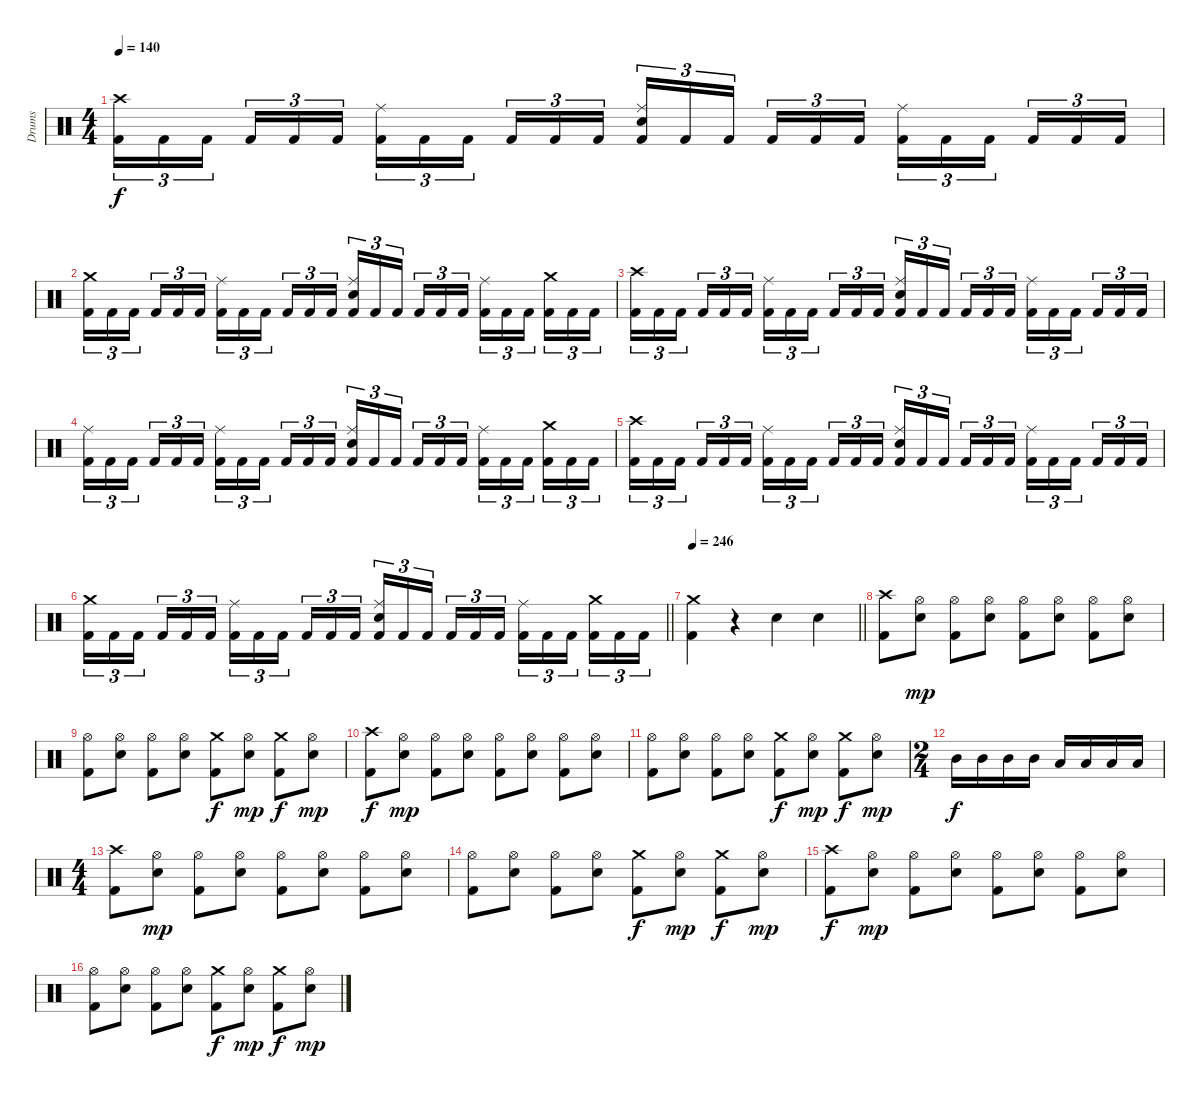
\track ("Drums" "Drums") {instrument percussion}
\staff {score}
\articulation defaults
\ts (4 4)
\tempo 140
\clef neutral
\ks c
("Crash high (hit)" "Kick (hit) 2").16{tu (3 2) dy f} "Kick (hit) 2".16{tu (3 2)} "Kick (hit) 2".16{tu (3 2) beam splitsecondary} "Kick (hit) 2".16{tu (3 2)} "Kick (hit) 2".16{tu (3 2)} "Kick (hit) 2".16{tu (3 2)} ("Ride (middle)" "Kick (hit) 2").16{tu (3 2)} "Kick (hit) 2".16{tu (3 2)} "Kick (hit) 2".16{tu (3 2) beam splitsecondary} "Kick (hit) 2".16{tu (3 2)} "Kick (hit) 2".16{tu (3 2)} "Kick (hit) 2".16{tu (3 2)} ("Ride (middle)" "Snare (hit) 2" "Kick (hit) 2").16{tu (3 2)} "Kick (hit) 2".16{tu (3 2)} "Kick (hit) 2".16{tu (3 2) beam splitsecondary} "Kick (hit) 2".16{tu (3 2)} "Kick (hit) 2".16{tu (3 2)} "Kick (hit) 2".16{tu (3 2)} ("Ride (middle)" "Kick (hit) 2").16{tu (3 2)} "Kick (hit) 2".16{tu (3 2)} "Kick (hit) 2".16{tu (3 2) beam splitsecondary} "Kick (hit) 2".16{tu (3 2)} "Kick (hit) 2".16{tu (3 2)} "Kick (hit) 2".16{tu (3 2)} |
("Crash medium (hit)" "Kick (hit) 2").16{tu (3 2)} "Kick (hit) 2".16{tu (3 2)} "Kick (hit) 2".16{tu (3 2) beam splitsecondary} "Kick (hit) 2".16{tu (3 2)} "Kick (hit) 2".16{tu (3 2)} "Kick (hit) 2".16{tu (3 2)} ("Ride (middle)" "Kick (hit) 2").16{tu (3 2)} "Kick (hit) 2".16{tu (3 2)} "Kick (hit) 2".16{tu (3 2) beam splitsecondary} "Kick (hit) 2".16{tu (3 2)} "Kick (hit) 2".16{tu (3 2)} "Kick (hit) 2".16{tu (3 2)} ("Ride (middle)" "Snare (hit) 2" "Kick (hit) 2").16{tu (3 2)} "Kick (hit) 2".16{tu (3 2)} "Kick (hit) 2".16{tu (3 2) beam splitsecondary} "Kick (hit) 2".16{tu (3 2)} "Kick (hit) 2".16{tu (3 2)} "Kick (hit) 2".16{tu (3 2)} ("Ride (middle)" "Kick (hit) 2").16{tu (3 2)} "Kick (hit) 2".16{tu (3 2)} "Kick (hit) 2".16{tu (3 2) beam splitsecondary} ("Crash medium (hit)" "Kick (hit) 2").16{tu (3 2)} "Kick (hit) 2".16{tu (3 2)} "Kick (hit) 2".16{tu (3 2)} |
("Crash high (hit)" "Kick (hit) 2").16{tu (3 2)} "Kick (hit) 2".16{tu (3 2)} "Kick (hit) 2".16{tu (3 2) beam splitsecondary} "Kick (hit) 2".16{tu (3 2)} "Kick (hit) 2".16{tu (3 2)} "Kick (hit) 2".16{tu (3 2)} ("Ride (middle)" "Kick (hit) 2").16{tu (3 2)} "Kick (hit) 2".16{tu (3 2)} "Kick (hit) 2".16{tu (3 2) beam splitsecondary} "Kick (hit) 2".16{tu (3 2)} "Kick (hit) 2".16{tu (3 2)} "Kick (hit) 2".16{tu (3 2)} ("Ride (middle)" "Snare (hit) 2" "Kick (hit) 2").16{tu (3 2)} "Kick (hit) 2".16{tu (3 2)} "Kick (hit) 2".16{tu (3 2) beam splitsecondary} "Kick (hit) 2".16{tu (3 2)} "Kick (hit) 2".16{tu (3 2)} "Kick (hit) 2".16{tu (3 2)} ("Ride (middle)" "Kick (hit) 2").16{tu (3 2)} "Kick (hit) 2".16{tu (3 2)} "Kick (hit) 2".16{tu (3 2) beam splitsecondary} "Kick (hit) 2".16{tu (3 2)} "Kick (hit) 2".16{tu (3 2)} "Kick (hit) 2".16{tu (3 2)} |
("Ride (middle)" "Kick (hit) 2").16{tu (3 2)} "Kick (hit) 2".16{tu (3 2)} "Kick (hit) 2".16{tu (3 2) beam splitsecondary} "Kick (hit) 2".16{tu (3 2)} "Kick (hit) 2".16{tu (3 2)} "Kick (hit) 2".16{tu (3 2)} ("Ride (middle)" "Kick (hit) 2").16{tu (3 2)} "Kick (hit) 2".16{tu (3 2)} "Kick (hit) 2".16{tu (3 2) beam splitsecondary} "Kick (hit) 2".16{tu (3 2)} "Kick (hit) 2".16{tu (3 2)} "Kick (hit) 2".16{tu (3 2)} ("Ride (middle)" "Snare (hit) 2" "Kick (hit) 2").16{tu (3 2)} "Kick (hit) 2".16{tu (3 2)} "Kick (hit) 2".16{tu (3 2) beam splitsecondary} "Kick (hit) 2".16{tu (3 2)} "Kick (hit) 2".16{tu (3 2)} "Kick (hit) 2".16{tu (3 2)} ("Ride (middle)" "Kick (hit) 2").16{tu (3 2)} "Kick (hit) 2".16{tu (3 2)} "Kick (hit) 2".16{tu (3 2) beam splitsecondary} ("Crash medium (hit)" "Kick (hit) 2").16{tu (3 2)} "Kick (hit) 2".16{tu (3 2)} "Kick (hit) 2".16{tu (3 2)} |
("Crash high (hit)" "Kick (hit) 2").16{tu (3 2)} "Kick (hit) 2".16{tu (3 2)} "Kick (hit) 2".16{tu (3 2) beam splitsecondary} "Kick (hit) 2".16{tu (3 2)} "Kick (hit) 2".16{tu (3 2)} "Kick (hit) 2".16{tu (3 2)} ("Ride (middle)" "Kick (hit) 2").16{tu (3 2)} "Kick (hit) 2".16{tu (3 2)} "Kick (hit) 2".16{tu (3 2) beam splitsecondary} "Kick (hit) 2".16{tu (3 2)} "Kick (hit) 2".16{tu (3 2)} "Kick (hit) 2".16{tu (3 2)} ("Ride (middle)" "Snare (hit) 2" "Kick (hit) 2").16{tu (3 2)} "Kick (hit) 2".16{tu (3 2)} "Kick (hit) 2".16{tu (3 2) beam splitsecondary} "Kick (hit) 2".16{tu (3 2)} "Kick (hit) 2".16{tu (3 2)} "Kick (hit) 2".16{tu (3 2)} ("Ride (middle)" "Kick (hit) 2").16{tu (3 2)} "Kick (hit) 2".16{tu (3 2)} "Kick (hit) 2".16{tu (3 2) beam splitsecondary} "Kick (hit) 2".16{tu (3 2)} "Kick (hit) 2".16{tu (3 2)} "Kick (hit) 2".16{tu (3 2)} |
\barLineRight lightlight
("Crash medium (hit)" "Kick (hit) 2").16{tu (3 2)} "Kick (hit) 2".16{tu (3 2)} "Kick (hit) 2".16{tu (3 2) beam splitsecondary} "Kick (hit) 2".16{tu (3 2)} "Kick (hit) 2".16{tu (3 2)} "Kick (hit) 2".16{tu (3 2)} ("Ride (middle)" "Kick (hit) 2").16{tu (3 2)} "Kick (hit) 2".16{tu (3 2)} "Kick (hit) 2".16{tu (3 2) beam splitsecondary} "Kick (hit) 2".16{tu (3 2)} "Kick (hit) 2".16{tu (3 2)} "Kick (hit) 2".16{tu (3 2)} ("Ride (middle)" "Snare (hit) 2" "Kick (hit) 2").16{tu (3 2)} "Kick (hit) 2".16{tu (3 2)} "Kick (hit) 2".16{tu (3 2) beam splitsecondary} "Kick (hit) 2".16{tu (3 2)} "Kick (hit) 2".16{tu (3 2)} "Kick (hit) 2".16{tu (3 2)} ("Ride (middle)" "Kick (hit) 2").16{tu (3 2)} "Kick (hit) 2".16{tu (3 2)} "Kick (hit) 2".16{tu (3 2) beam splitsecondary} ("Crash medium (hit)" "Kick (hit) 2").16{tu (3 2)} "Kick (hit) 2".16{tu (3 2)} "Kick (hit) 2".16{tu (3 2)} |
\section ("" "")
\tempo 246
\barLineRight lightlight
("Crash medium (hit)" "Kick (hit) 2").4 r.4 "Snare (hit) 2".4 "Snare (hit) 2".4 |
\section ("" "")
("Crash high (hit)" "Kick (hit) 2").8 ("Hi-Hat (open)" "Snare (hit) 2").8{dy mp} ("Hi-Hat (open)" "Kick (hit) 2").8 ("Hi-Hat (open)" "Snare (hit) 2").8 ("Hi-Hat (open)" "Kick (hit) 2").8 ("Hi-Hat (open)" "Snare (hit) 2").8 ("Hi-Hat (open)" "Kick (hit) 2").8 ("Hi-Hat (open)" "Snare (hit) 2").8 |
("Hi-Hat (open)" "Kick (hit) 2").8 ("Hi-Hat (open)" "Snare (hit) 2").8 ("Hi-Hat (open)" "Kick (hit) 2").8 ("Hi-Hat (open)" "Snare (hit) 2").8 ("Crash medium (hit)" "Kick (hit) 2").8{dy f} ("Hi-Hat (open)" "Snare (hit) 2").8{dy mp} ("Crash medium (hit)" "Kick (hit) 2").8{dy f} ("Hi-Hat (open)" "Snare (hit) 2").8{dy mp} |
("Crash high (hit)" "Kick (hit) 2").8{dy f} ("Hi-Hat (open)" "Snare (hit) 2").8{dy mp} ("Hi-Hat (open)" "Kick (hit) 2").8 ("Hi-Hat (open)" "Snare (hit) 2").8 ("Hi-Hat (open)" "Kick (hit) 2").8 ("Hi-Hat (open)" "Snare (hit) 2").8 ("Hi-Hat (open)" "Kick (hit) 2").8 ("Hi-Hat (open)" "Snare (hit) 2").8 |
("Hi-Hat (open)" "Kick (hit) 2").8 ("Hi-Hat (open)" "Snare (hit) 2").8 ("Hi-Hat (open)" "Kick (hit) 2").8 ("Hi-Hat (open)" "Snare (hit) 2").8 ("Crash medium (hit)" "Kick (hit) 2").8{dy f} ("Hi-Hat (open)" "Snare (hit) 2").8{dy mp} ("Crash medium (hit)" "Kick (hit) 2").8{dy f} ("Hi-Hat (open)" "Snare (hit) 2").8{dy mp} |
\ts (2 4)
"Mid Tom (hit)".16{dy f} "Mid Tom (hit)".16 "Mid Tom (hit)".16 "Mid Tom (hit)".16 "Low Tom (hit)".16 "Low Tom (hit)".16 "Low Tom (hit)".16 "Low Tom (hit)".16 |
\ts (4 4)
("Crash high (hit)" "Kick (hit) 2").8 ("Hi-Hat (open)" "Snare (hit) 2").8{dy mp} ("Hi-Hat (open)" "Kick (hit) 2").8 ("Hi-Hat (open)" "Snare (hit) 2").8 ("Hi-Hat (open)" "Kick (hit) 2").8 ("Hi-Hat (open)" "Snare (hit) 2").8 ("Hi-Hat (open)" "Kick (hit) 2").8 ("Hi-Hat (open)" "Snare (hit) 2").8 |
("Hi-Hat (open)" "Kick (hit) 2").8 ("Hi-Hat (open)" "Snare (hit) 2").8 ("Hi-Hat (open)" "Kick (hit) 2").8 ("Hi-Hat (open)" "Snare (hit) 2").8 ("Crash medium (hit)" "Kick (hit) 2").8{dy f} ("Hi-Hat (open)" "Snare (hit) 2").8{dy mp} ("Crash medium (hit)" "Kick (hit) 2").8{dy f} ("Hi-Hat (open)" "Snare (hit) 2").8{dy mp} |
("Crash high (hit)" "Kick (hit) 2").8{dy f} ("Hi-Hat (open)" "Snare (hit) 2").8{dy mp} ("Hi-Hat (open)" "Kick (hit) 2").8 ("Hi-Hat (open)" "Snare (hit) 2").8 ("Hi-Hat (open)" "Kick (hit) 2").8 ("Hi-Hat (open)" "Snare (hit) 2").8 ("Hi-Hat (open)" "Kick (hit) 2").8 ("Hi-Hat (open)" "Snare (hit) 2").8 |
("Hi-Hat (open)" "Kick (hit) 2").8 ("Hi-Hat (open)" "Snare (hit) 2").8 ("Hi-Hat (open)" "Kick (hit) 2").8 ("Hi-Hat (open)" "Snare (hit) 2").8 ("Crash medium (hit)" "Kick (hit) 2").8{dy f} ("Hi-Hat (open)" "Snare (hit) 2").8{dy mp} ("Crash medium (hit)" "Kick (hit) 2").8{dy f} ("Hi-Hat (open)" "Snare (hit) 2").8{dy mp}
